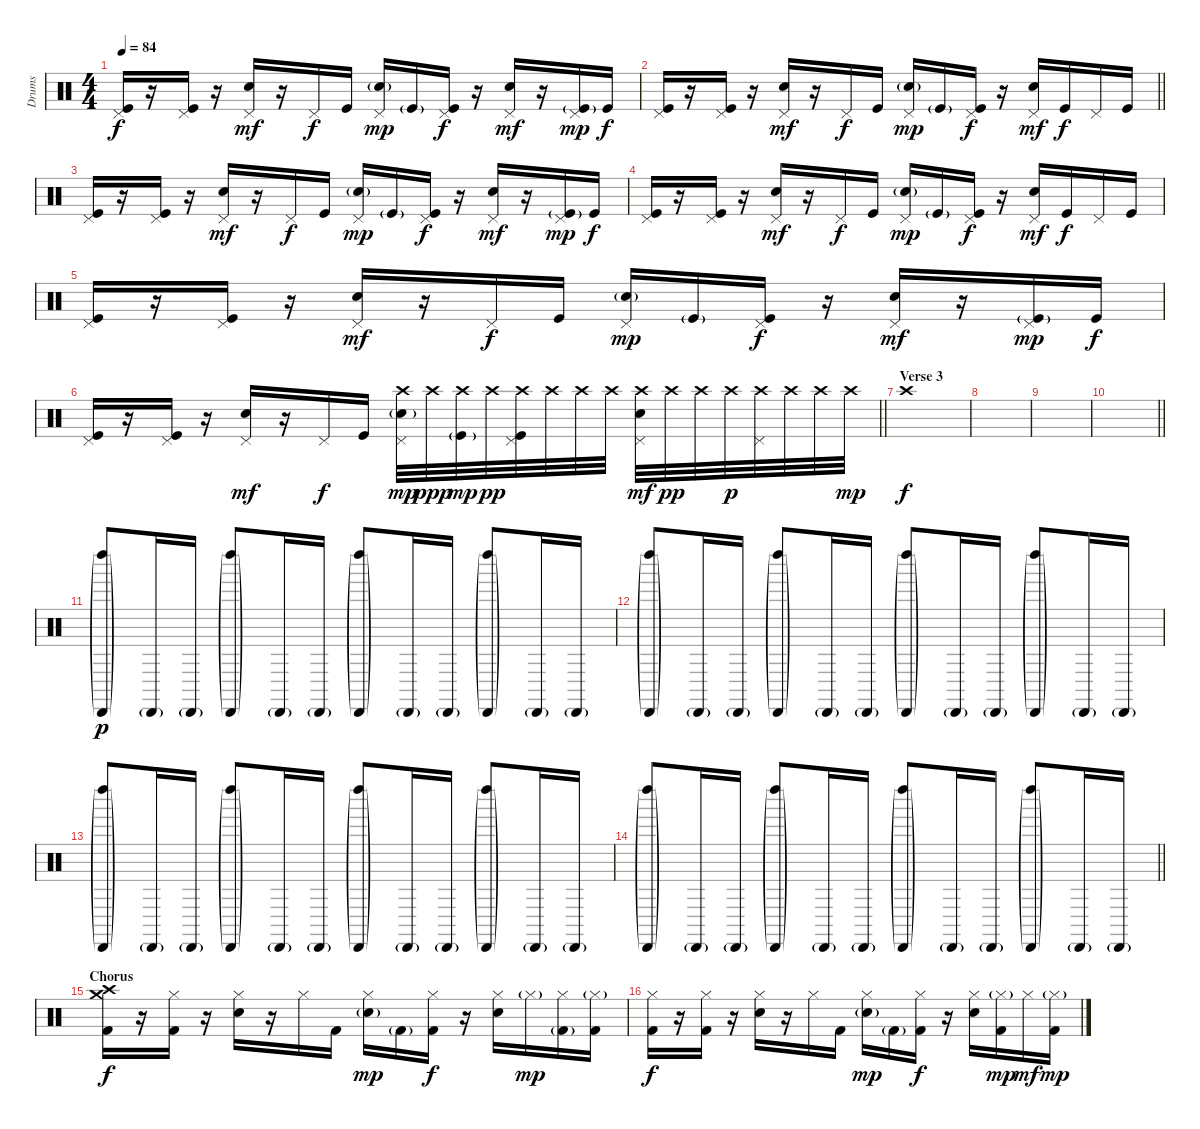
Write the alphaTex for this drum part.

\track ("Drums" "Drums") {instrument percussion}
\staff {score}
\articulation defaults
\ts (4 4)
\tempo 84
\clef neutral
\ks c
("Pedal Hi-Hat (hit)" "Kick (hit)").16{dy f} r.16 ("Pedal Hi-Hat (hit)" "Kick (hit)").16 r.16 ("Pedal Hi-Hat (hit)" "Electric Snare (hit)").16{dy mf} r.16 "Pedal Hi-Hat (hit)".16{dy f} "Kick (hit)".16 ("Pedal Hi-Hat (hit)" "Electric Snare (hit)"{g}).16{dy mp} "Kick (hit)"{g}.16 ("Pedal Hi-Hat (hit)" "Kick (hit)").16{dy f} r.16 ("Pedal Hi-Hat (hit)" "Electric Snare (hit)").16{dy mf} r.16 ("Pedal Hi-Hat (hit)" "Kick (hit)"{g}).16{dy mp} "Kick (hit)".16{dy f} |
\barLineRight lightlight
("Pedal Hi-Hat (hit)" "Kick (hit)").16 r.16 ("Pedal Hi-Hat (hit)" "Kick (hit)").16 r.16 ("Pedal Hi-Hat (hit)" "Electric Snare (hit)").16{dy mf} r.16 "Pedal Hi-Hat (hit)".16{dy f} "Kick (hit)".16 ("Pedal Hi-Hat (hit)" "Electric Snare (hit)"{g}).16{dy mp} "Kick (hit)"{g}.16 ("Pedal Hi-Hat (hit)" "Kick (hit)").16{dy f} r.16 ("Pedal Hi-Hat (hit)" "Electric Snare (hit)").16{dy mf} "Kick (hit)".16{dy f} "Pedal Hi-Hat (hit)".16 "Kick (hit)".16 |
("Pedal Hi-Hat (hit)" "Kick (hit)").16 r.16 ("Pedal Hi-Hat (hit)" "Kick (hit)").16 r.16 ("Pedal Hi-Hat (hit)" "Electric Snare (hit)").16{dy mf} r.16 "Pedal Hi-Hat (hit)".16{dy f} "Kick (hit)".16 ("Pedal Hi-Hat (hit)" "Electric Snare (hit)"{g}).16{dy mp} "Kick (hit)"{g}.16 ("Pedal Hi-Hat (hit)" "Kick (hit)").16{dy f} r.16 ("Pedal Hi-Hat (hit)" "Electric Snare (hit)").16{dy mf} r.16 ("Pedal Hi-Hat (hit)" "Kick (hit)"{g}).16{dy mp} "Kick (hit)".16{dy f} |
("Pedal Hi-Hat (hit)" "Kick (hit)").16 r.16 ("Pedal Hi-Hat (hit)" "Kick (hit)").16 r.16 ("Pedal Hi-Hat (hit)" "Electric Snare (hit)").16{dy mf} r.16 "Pedal Hi-Hat (hit)".16{dy f} "Kick (hit)".16 ("Pedal Hi-Hat (hit)" "Electric Snare (hit)"{g}).16{dy mp} "Kick (hit)"{g}.16 ("Pedal Hi-Hat (hit)" "Kick (hit)").16{dy f} r.16 ("Pedal Hi-Hat (hit)" "Electric Snare (hit)").16{dy mf} "Kick (hit)".16{dy f} "Pedal Hi-Hat (hit)".16 "Kick (hit)".16 |
("Pedal Hi-Hat (hit)" "Kick (hit)").16 r.16 ("Pedal Hi-Hat (hit)" "Kick (hit)").16 r.16 ("Pedal Hi-Hat (hit)" "Electric Snare (hit)").16{dy mf} r.16 "Pedal Hi-Hat (hit)".16{dy f} "Kick (hit)".16 ("Pedal Hi-Hat (hit)" "Electric Snare (hit)"{g}).16{dy mp} "Kick (hit)"{g}.16 ("Pedal Hi-Hat (hit)" "Kick (hit)").16{dy f} r.16 ("Pedal Hi-Hat (hit)" "Electric Snare (hit)").16{dy mf} r.16 ("Pedal Hi-Hat (hit)" "Kick (hit)"{g}).16{dy mp} "Kick (hit)".16{dy f} |
\barLineRight lightlight
("Pedal Hi-Hat (hit)" "Kick (hit)").16 r.16 ("Pedal Hi-Hat (hit)" "Kick (hit)").16 r.16 ("Pedal Hi-Hat (hit)" "Electric Snare (hit)").16{dy mf} r.16 "Pedal Hi-Hat (hit)".16{dy f} "Kick (hit)".16 ("Crash high (hit)" "Pedal Hi-Hat (hit)" "Electric Snare (hit)"{g}).32{dy mp} "Crash high (hit)".32{dy ppp} ("Crash high (hit)" "Kick (hit)"{g}).32{dy mp} "Crash high (hit)".32{dy pp} ("Crash high (hit)" "Pedal Hi-Hat (hit)" "Kick (hit)").32 "Crash high (hit)".32 "Crash high (hit)".32 "Crash high (hit)".32 ("Crash high (hit)" "Pedal Hi-Hat (hit)" "Electric Snare (hit)").32{dy mf} "Crash high (hit)".32{dy pp} "Crash high (hit)".32 "Crash high (hit)".32{dy p} ("Crash high (hit)" "Pedal Hi-Hat (hit)").32 "Crash high (hit)".32 "Crash high (hit)".32 "Crash high (hit)".32{dy mp} |
\section ("" "Verse 3")
"Crash high (hit)".1{dy f} |
|
|
\barLineRight lightlight
|
("Left Maraca (hit)"{g} "Cabasa (hit)"{g}).8{dy p} "Cabasa (hit)"{g}.16 "Cabasa (hit)"{g}.16 ("Left Maraca (hit)"{g} "Cabasa (hit)"{g}).8 "Cabasa (hit)"{g}.16 "Cabasa (hit)"{g}.16 ("Left Maraca (hit)"{g} "Cabasa (hit)"{g}).8 "Cabasa (hit)"{g}.16 "Cabasa (hit)"{g}.16 ("Left Maraca (hit)"{g} "Cabasa (hit)"{g}).8 "Cabasa (hit)"{g}.16 "Cabasa (hit)"{g}.16 |
("Left Maraca (hit)"{g} "Cabasa (hit)"{g}).8 "Cabasa (hit)"{g}.16 "Cabasa (hit)"{g}.16 ("Left Maraca (hit)"{g} "Cabasa (hit)"{g}).8 "Cabasa (hit)"{g}.16 "Cabasa (hit)"{g}.16 ("Left Maraca (hit)"{g} "Cabasa (hit)"{g}).8 "Cabasa (hit)"{g}.16 "Cabasa (hit)"{g}.16 ("Left Maraca (hit)"{g} "Cabasa (hit)"{g}).8 "Cabasa (hit)"{g}.16 "Cabasa (hit)"{g}.16 |
("Left Maraca (hit)"{g} "Cabasa (hit)"{g}).8 "Cabasa (hit)"{g}.16 "Cabasa (hit)"{g}.16 ("Left Maraca (hit)"{g} "Cabasa (hit)"{g}).8 "Cabasa (hit)"{g}.16 "Cabasa (hit)"{g}.16 ("Left Maraca (hit)"{g} "Cabasa (hit)"{g}).8 "Cabasa (hit)"{g}.16 "Cabasa (hit)"{g}.16 ("Left Maraca (hit)"{g} "Cabasa (hit)"{g}).8 "Cabasa (hit)"{g}.16 "Cabasa (hit)"{g}.16 |
\barLineRight lightlight
("Left Maraca (hit)"{g} "Cabasa (hit)"{g}).8 "Cabasa (hit)"{g}.16 "Cabasa (hit)"{g}.16 ("Left Maraca (hit)"{g} "Cabasa (hit)"{g}).8 "Cabasa (hit)"{g}.16 "Cabasa (hit)"{g}.16 ("Left Maraca (hit)"{g} "Cabasa (hit)"{g}).8 "Cabasa (hit)"{g}.16 "Cabasa (hit)"{g}.16 ("Left Maraca (hit)"{g} "Cabasa (hit)"{g}).8 "Cabasa (hit)"{g}.16 "Cabasa (hit)"{g}.16 |
\section ("" "Chorus")
("Crash high (hit)" "Crash medium (hit)" "Kick (hit) 2").16{dy f} r.16 ("Hi-Hat (closed)" "Kick (hit) 2").16 r.16 ("Hi-Hat (closed)" "Electric Snare (hit)").16 r.16 "Hi-Hat (closed)".16 "Kick (hit) 2".16 ("Hi-Hat (closed)" "Electric Snare (hit)"{g}).16{dy mp} "Kick (hit) 2"{g}.16 ("Hi-Hat (closed)" "Kick (hit) 2").16{dy f} r.16 ("Hi-Hat (closed)" "Electric Snare (hit)").16 "Hi-Hat (closed)"{g}.16{dy mp} ("Hi-Hat (closed)" "Kick (hit) 2"{g}).16 ("Hi-Hat (closed)"{g} "Kick (hit) 2").16 |
("Hi-Hat (closed)" "Kick (hit) 2").16{dy f} r.16 ("Hi-Hat (closed)" "Kick (hit) 2").16 r.16 ("Hi-Hat (closed)" "Electric Snare (hit)").16 r.16 "Hi-Hat (closed)".16 "Kick (hit) 2".16 ("Hi-Hat (closed)" "Electric Snare (hit)"{g}).16{dy mp} "Kick (hit) 2"{g}.16 ("Hi-Hat (closed)" "Kick (hit) 2").16{dy f} r.16 ("Hi-Hat (closed)" "Electric Snare (hit)").16 ("Hi-Hat (closed)"{g} "Kick (hit) 2").16{dy mp} "Hi-Hat (closed)".16{dy mf} ("Hi-Hat (closed)"{g} "Kick (hit) 2").16{dy mp}
